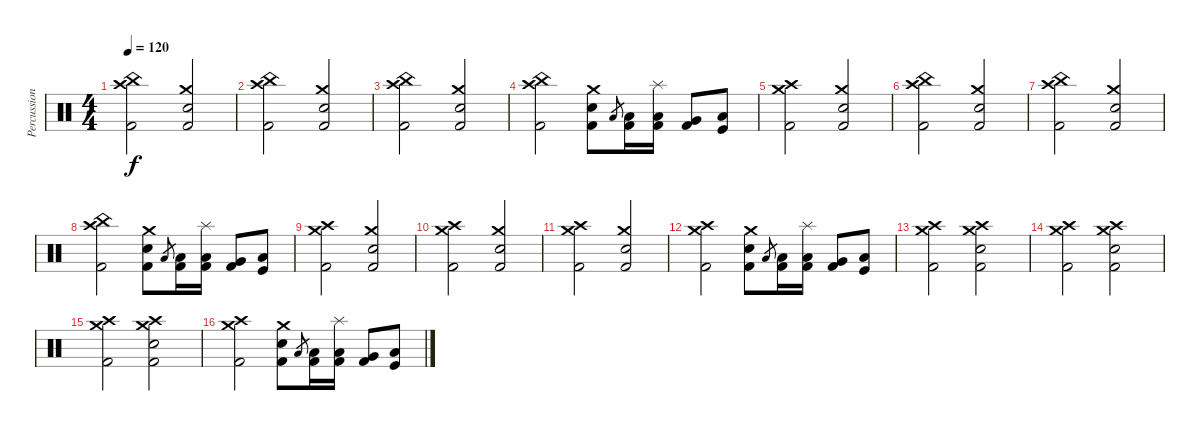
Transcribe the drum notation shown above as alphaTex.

\track ("Percussion" "Percussion") {instrument percussion}
\staff {score}
\articulation defaults
\ts (4 4)
\tempo 120
\clef neutral
\ks c
("China (hit)" "Crash high (hit)" "Kick (hit) 2").2{dy f} ("Crash medium (hit)" "Snare (hit) 2" "Kick (hit) 2").2 |
("China (hit)" "Crash high (hit)" "Kick (hit) 2").2 ("Crash medium (hit)" "Snare (hit) 2" "Kick (hit) 2").2 |
("China (hit)" "Crash high (hit)" "Kick (hit) 2").2 ("Crash medium (hit)" "Snare (hit) 2" "Kick (hit) 2").2 |
("China (hit)" "Crash high (hit)" "Kick (hit) 2").2 ("Crash medium (hit)" "Snare (hit) 2" "Kick (hit) 2").8 "Low Floor Tom (hit)".8{gr} ("Low Floor Tom (hit)" "Kick (hit) 2").16 ("Splash (hit)" "Low Floor Tom (hit)" "Kick (hit) 2").16 ("Very Low Tom (hit)" "Kick (hit) 2").8 ("Low Floor Tom (hit)" "Kick (hit)").8 |
("Crash medium (hit)" "Crash high (hit)" "Kick (hit) 2").2 ("Crash medium (hit)" "Snare (hit) 2" "Kick (hit) 2").2 |
("China (hit)" "Crash high (hit)" "Kick (hit) 2").2 ("Crash medium (hit)" "Snare (hit) 2" "Kick (hit) 2").2 |
("China (hit)" "Crash high (hit)" "Kick (hit) 2").2 ("Crash medium (hit)" "Snare (hit) 2" "Kick (hit) 2").2 |
("China (hit)" "Crash high (hit)" "Kick (hit) 2").2 ("Crash medium (hit)" "Snare (hit) 2" "Kick (hit) 2").8 "Low Floor Tom (hit)".8{gr} ("Low Floor Tom (hit)" "Kick (hit) 2").16 ("Splash (hit)" "Low Floor Tom (hit)" "Kick (hit) 2").16 ("Very Low Tom (hit)" "Kick (hit) 2").8 ("Low Floor Tom (hit)" "Kick (hit)").8 |
("Crash medium (hit)" "Crash high (hit)" "Kick (hit) 2").2 ("Crash medium (hit)" "Snare (hit) 2" "Kick (hit) 2").2 |
("Crash medium (hit)" "Crash high (hit)" "Kick (hit) 2").2 ("Crash medium (hit)" "Snare (hit) 2" "Kick (hit) 2").2 |
("Crash medium (hit)" "Crash high (hit)" "Kick (hit) 2").2 ("Crash medium (hit)" "Snare (hit) 2" "Kick (hit) 2").2 |
("Crash medium (hit)" "Crash high (hit)" "Kick (hit) 2").2 ("Crash medium (hit)" "Snare (hit) 2" "Kick (hit) 2").8 "Low Floor Tom (hit)".8{gr} ("Low Floor Tom (hit)" "Kick (hit) 2").16 ("Splash (hit)" "Low Floor Tom (hit)" "Kick (hit) 2").16 ("Very Low Tom (hit)" "Kick (hit) 2").8 ("Low Floor Tom (hit)" "Kick (hit)").8 |
("Crash medium (hit)" "Crash high (hit)" "Kick (hit) 2").2 ("Crash medium (hit)" "Crash high (hit)" "Snare (hit) 2" "Kick (hit) 2").2 |
("Crash medium (hit)" "Crash high (hit)" "Kick (hit) 2").2 ("Crash medium (hit)" "Crash high (hit)" "Snare (hit) 2" "Kick (hit) 2").2 |
("Crash medium (hit)" "Crash high (hit)" "Kick (hit) 2").2 ("Crash medium (hit)" "Crash high (hit)" "Snare (hit) 2" "Kick (hit) 2").2 |
("Crash medium (hit)" "Crash high (hit)" "Kick (hit) 2").2 ("Crash medium (hit)" "Snare (hit) 2" "Kick (hit) 2").8 "Low Floor Tom (hit)".8{gr} ("Low Floor Tom (hit)" "Kick (hit) 2").16 ("Splash (hit)" "Low Floor Tom (hit)" "Kick (hit) 2").16 ("Very Low Tom (hit)" "Kick (hit) 2").8 ("Low Floor Tom (hit)" "Kick (hit)").8
